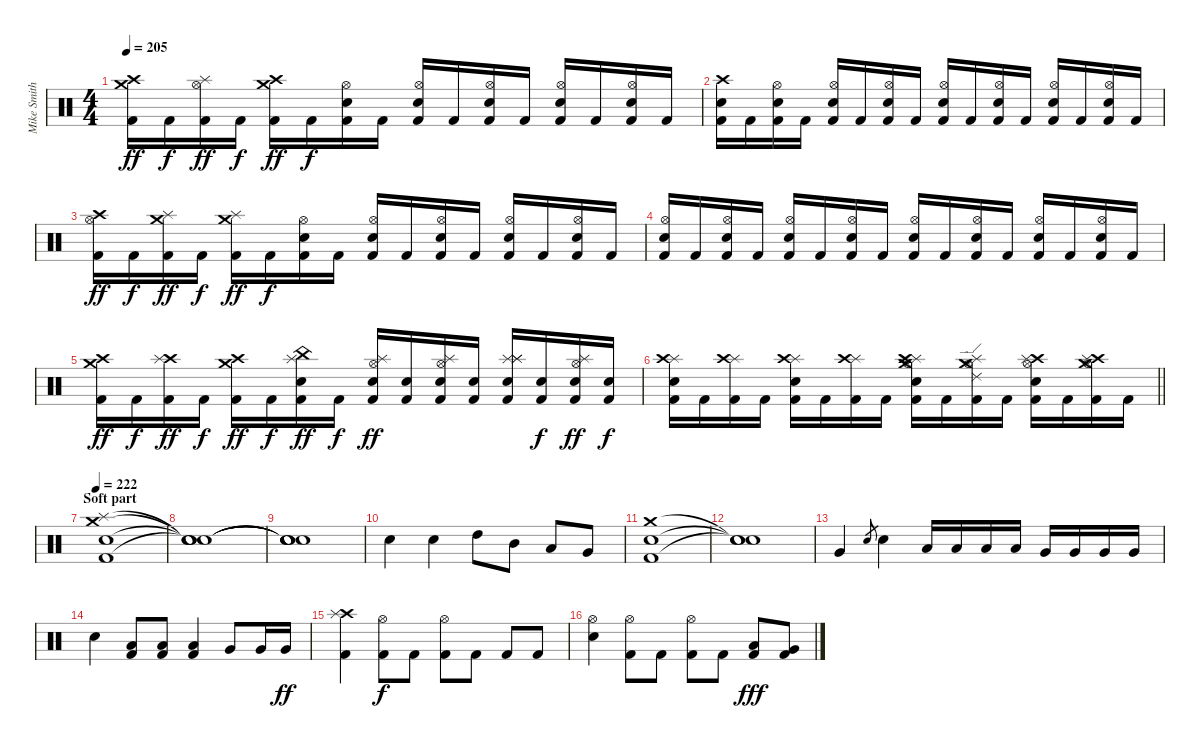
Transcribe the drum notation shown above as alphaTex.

\track ("Mike Smith (Suffocation)" "Mike Smith") {instrument percussion}
\staff {score}
\articulation defaults
\ts (4 4)
\tempo 205
\clef neutral
\ks c
("Crash high (hit)" "Crash medium (hit)" "Kick (hit) 2").16{dy ff} "Kick (hit) 2".16{dy f} ("Splash (hit)" "Hi-Hat (open)" "Kick (hit) 2").16{dy ff} "Kick (hit) 2".16{dy f} ("Crash high (hit)" "Crash medium (hit)" "Kick (hit) 2").16{dy ff} "Kick (hit) 2".16{dy f} ("Hi-Hat (open)" "Snare (hit) 2" "Kick (hit) 2").16 "Kick (hit) 2".16 ("Hi-Hat (open)" "Snare (hit) 2" "Kick (hit) 2").16 "Kick (hit) 2".16 ("Hi-Hat (open)" "Snare (hit) 2" "Kick (hit) 2").16 "Kick (hit) 2".16 ("Hi-Hat (open)" "Snare (hit) 2" "Kick (hit) 2").16 "Kick (hit) 2".16 ("Hi-Hat (open)" "Snare (hit) 2" "Kick (hit) 2").16 "Kick (hit) 2".16 |
("Crash high (hit)" "Snare (hit) 2" "Kick (hit) 2").16 "Kick (hit) 2".16 ("Hi-Hat (open)" "Snare (hit) 2" "Kick (hit) 2").16 "Kick (hit) 2".16 ("Hi-Hat (open)" "Snare (hit) 2" "Kick (hit) 2").16 "Kick (hit) 2".16 ("Hi-Hat (open)" "Snare (hit) 2" "Kick (hit) 2").16 "Kick (hit) 2".16 ("Hi-Hat (open)" "Snare (hit) 2" "Kick (hit) 2").16 "Kick (hit) 2".16 ("Hi-Hat (open)" "Snare (hit) 2" "Kick (hit) 2").16 "Kick (hit) 2".16 ("Hi-Hat (open)" "Snare (hit) 2" "Kick (hit) 2").16 "Kick (hit) 2".16 ("Hi-Hat (open)" "Snare (hit) 2" "Kick (hit) 2").16 "Kick (hit) 2".16 |
("Crash high (hit)" "Hi-Hat (open)" "Kick (hit) 2").16{dy ff} "Kick (hit) 2".16{dy f} ("Splash (hit)" "Crash medium (hit)" "Kick (hit) 2").16{dy ff} "Kick (hit) 2".16{dy f} ("Crash medium (hit)" "Splash (hit)" "Kick (hit) 2").16{dy ff} "Kick (hit) 2".16{dy f} ("Hi-Hat (open)" "Snare (hit) 2" "Kick (hit) 2").16 "Kick (hit) 2".16 ("Hi-Hat (open)" "Snare (hit) 2" "Kick (hit) 2").16 "Kick (hit) 2".16 ("Hi-Hat (open)" "Snare (hit) 2" "Kick (hit) 2").16 "Kick (hit) 2".16 ("Hi-Hat (open)" "Snare (hit) 2" "Kick (hit) 2").16 "Kick (hit) 2".16 ("Hi-Hat (open)" "Snare (hit) 2" "Kick (hit) 2").16 "Kick (hit) 2".16 |
("Hi-Hat (open)" "Snare (hit) 2" "Kick (hit) 2").16 "Kick (hit) 2".16 ("Hi-Hat (open)" "Snare (hit) 2" "Kick (hit) 2").16 "Kick (hit) 2".16 ("Hi-Hat (open)" "Snare (hit) 2" "Kick (hit) 2").16 "Kick (hit) 2".16 ("Hi-Hat (open)" "Snare (hit) 2" "Kick (hit) 2").16 "Kick (hit) 2".16 ("Hi-Hat (open)" "Snare (hit) 2" "Kick (hit) 2").16 "Kick (hit) 2".16 ("Hi-Hat (open)" "Snare (hit) 2" "Kick (hit) 2").16 "Kick (hit) 2".16 ("Hi-Hat (open)" "Snare (hit) 2" "Kick (hit) 2").16 "Kick (hit) 2".16 ("Hi-Hat (open)" "Snare (hit) 2" "Kick (hit) 2").16 "Kick (hit) 2".16 |
("Crash high (hit)" "Crash medium (hit)" "Kick (hit) 2").16{dy ff} "Kick (hit) 2".16{dy f} ("Crash high (hit)" "Splash (hit)" "Kick (hit) 2").16{dy ff} "Kick (hit) 2".16{dy f} ("Crash high (hit)" "Crash medium (hit)" "Kick (hit) 2").16{dy ff} "Kick (hit) 2".16{dy f} ("China (hit)" "Snare (hit) 2" "Splash (hit)" "Kick (hit) 2").16{dy ff} "Kick (hit) 2".16{dy f} ("Hi-Hat (open)" "Snare (hit) 2" "Splash (hit)" "Kick (hit) 2").16{dy ff} ("Snare (hit) 2" "Kick (hit) 2").16 ("Hi-Hat (open)" "Snare (hit) 2" "Splash (hit)" "Kick (hit) 2").16 ("Snare (hit) 2" "Kick (hit) 2").16 ("Splash (hit)" "Splash (hit)" "Snare (hit) 2" "Splash (hit)" "Kick (hit) 2").16 ("Snare (hit) 2" "Kick (hit) 2").16{dy f} ("Hi-Hat (open)" "Snare (hit) 2" "Splash (hit)" "Kick (hit) 2").16{dy ff} ("Snare (hit) 2" "Kick (hit) 2").16{dy f} |
\barLineRight lightlight
("Splash (hit)" "Crash high (hit)" "Snare (hit) 2" "Kick (hit) 2").16 "Kick (hit) 2".16 ("Splash (hit)" "Crash high (hit)" "Kick (hit) 2").16 "Kick (hit) 2".16 ("Splash (hit)" "Crash high (hit)" "Snare (hit) 2" "Kick (hit) 2").16 "Kick (hit) 2".16 ("Splash (hit)" "Crash high (hit)" "Kick (hit) 2").16 "Kick (hit) 2".16 ("Hi-Hat (open)" "Splash (hit)" "Snare (hit) 2" "Crash high (hit)" "Crash medium (hit)" "Kick (hit) 2").16 "Kick (hit) 2".16 ("Hi-Hat (open)" "Splash (hit)" "Ride (edge) 2" "Crash medium (hit)" "Kick (hit) 2").16 "Kick (hit) 2".16 ("Hi-Hat (open)" "Crash high (hit)" "Snare (hit) 2" "Splash (hit)" "Kick (hit) 2").16 "Kick (hit) 2".16 ("Hi-Hat (open)" "Crash high (hit)" "Crash medium (hit)" "Splash (hit)" "Kick (hit) 2").16 "Kick (hit) 2".16 |
\section ("" "Soft part")
\tempo 222
("Splash (hit)" "Crash medium (hit)" "Snare (hit) 2" "Kick (hit) 2").1 |
("Snare (hit)"{t} "Snare (hit)"{t} "Snare (hit)"{t} "Snare (hit)"{t}).1 |
("Snare (hit)"{t} "Snare (hit)"{t} "Snare (hit)"{t} "Snare (hit)"{t}).1 |
"Snare (hit) 2".4 "Snare (hit) 2".4 "High Tom (hit)".8 "Mid Tom (hit)".8 "Low Tom (hit)".8 "Very Low Tom (hit)".8 |
("Crash medium (hit)" "Snare (hit) 2" "Kick (hit) 2").1 |
("Snare (hit)"{t} "Snare (hit)"{t} "Snare (hit)"{t}).1 |
"Very Low Tom (hit)".4 "Snare (hit) 2".8{gr} "Snare (hit) 2".4 "Low Tom (hit)".16 "Low Tom (hit)".16 "Low Tom (hit)".16 "Low Tom (hit)".16 "Very Low Tom (hit)".16 "Very Low Tom (hit)".16 "Very Low Tom (hit)".16 "Very Low Tom (hit)".16 |
"Snare (hit) 2".4 ("Low Tom (hit)" "Kick (hit) 2").8 ("Low Tom (hit)" "Kick (hit) 2").8 ("Low Tom (hit)" "Kick (hit) 2").4 "Very Low Tom (hit)".8 "Very Low Tom (hit)".16 "Very Low Tom (hit)".16{dy ff} |
("Crash high (hit)" "Splash (hit)" "Kick (hit) 2").4 ("Hi-Hat (open)" "Kick (hit) 2").8{dy f} "Kick (hit) 2".8 ("Hi-Hat (open)" "Kick (hit) 2").8 "Kick (hit) 2".8 "Kick (hit) 2".8 "Kick (hit) 2".8 |
("Hi-Hat (open)" "Snare (hit) 2").4 ("Hi-Hat (open)" "Kick (hit) 2").8 "Kick (hit) 2".8 ("Hi-Hat (open)" "Kick (hit) 2").8 "Kick (hit) 2".8 ("Low Tom (hit)" "Kick (hit) 2").8{dy fff} ("Very Low Tom (hit)" "Kick (hit) 2").8
